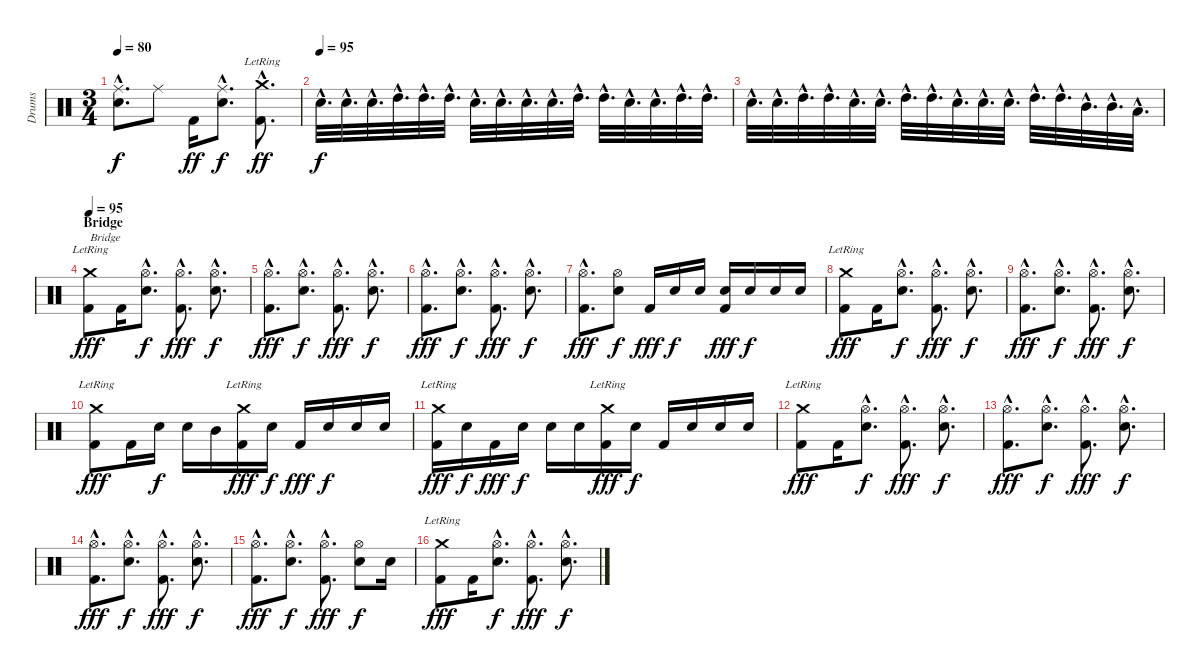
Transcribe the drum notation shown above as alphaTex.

\track ("Drums" "Drums") {instrument percussion}
\staff {score}
\articulation defaults
\ts (3 4)
\tempo 80
\clef neutral
\ks c
("Ride (middle)"{hac} "Snare (hit) 2"{hac}).8{d dy f} "Ride (middle)".8 "Kick (hit) 2".16{dy ff} ("Ride (middle)"{hac} "Snare (hit) 2"{hac}).8{d dy f} ("Crash medium (hit)"{hac lr} "Kick (hit) 2"{hac}).8{d dy ff} |
\tempo (95)
"Snare (hit) 2"{hac}.32{d dy f} "Snare (hit) 2"{hac}.32{d} "Snare (hit) 2"{hac}.32{d} "High Tom (hit)"{hac}.32{d} "High Tom (hit)"{hac}.32{d} "High Tom (hit)"{hac}.32{d} "Snare (hit) 2"{hac}.32{d} "Snare (hit) 2"{hac}.32{d} "Snare (hit) 2"{hac}.32{d} "Snare (hit) 2"{hac}.32{d} "High Tom (hit)"{hac}.32{d} "High Tom (hit)"{hac}.32{d} "Snare (hit) 2"{hac}.32{d} "Snare (hit) 2"{hac}.32{d} "High Tom (hit)"{hac}.32{d} "High Tom (hit)"{hac}.32{d} |
"Snare (hit) 2"{hac}.32{d} "Snare (hit) 2"{hac}.32{d} "High Tom (hit)"{hac}.32{d} "High Tom (hit)"{hac}.32{d} "Snare (hit) 2"{hac}.32{d} "Snare (hit) 2"{hac}.32{d} "High Tom (hit)"{hac}.32{d} "High Tom (hit)"{hac}.32{d} "Snare (hit) 2"{hac}.32{d} "Snare (hit) 2"{hac}.32{d} "Snare (hit) 2"{hac}.32{d} "High Tom (hit)"{hac}.32{d} "High Tom (hit)"{hac}.32{d} "Mid Tom (hit)"{hac}.32{d} "Mid Tom (hit)"{hac}.32{d} "Low Tom (hit)"{hac}.32{d} |
\section ("" "Bridge")
\tempo 95
("Crash medium (hit)"{lr} "Kick (hit) 2").8{txt "Bridge" dy fff} "Kick (hit) 2".16 ("Hi-Hat (open)"{hac} "Snare (hit) 2"{hac}).8{d dy f} ("Hi-Hat (open)"{hac} "Kick (hit) 2"{hac}).8{d dy fff} ("Hi-Hat (open)"{hac} "Snare (hit) 2"{hac}).8{d dy f} |
("Hi-Hat (open)"{hac} "Kick (hit) 2"{hac}).8{d dy fff} ("Hi-Hat (open)"{hac} "Snare (hit) 2"{hac}).8{d dy f} ("Hi-Hat (open)"{hac} "Kick (hit) 2"{hac}).8{d dy fff} ("Hi-Hat (open)"{hac} "Snare (hit) 2"{hac}).8{d dy f} |
("Hi-Hat (open)"{hac} "Kick (hit) 2"{hac}).8{d dy fff} ("Hi-Hat (open)"{hac} "Snare (hit) 2"{hac}).8{d dy f} ("Hi-Hat (open)"{hac} "Kick (hit) 2"{hac}).8{d dy fff} ("Hi-Hat (open)"{hac} "Snare (hit) 2"{hac}).8{d dy f} |
("Hi-Hat (open)"{hac} "Kick (hit) 2"{hac}).8{d dy fff} ("Hi-Hat (open)" "Snare (hit) 2").8{dy f} "Kick (hit) 2".16{dy fff} "Snare (hit) 2".16{dy f} "Snare (hit) 2".16 ("Snare (hit) 2" "Kick (hit) 2").16{dy fff} "Snare (hit) 2".16{dy f} "Snare (hit) 2".16 "Snare (hit) 2".16 |
("Crash medium (hit)"{lr} "Kick (hit) 2").8{dy fff} "Kick (hit) 2".16 ("Hi-Hat (open)"{hac} "Snare (hit) 2"{hac}).8{d dy f} ("Hi-Hat (open)"{hac} "Kick (hit) 2"{hac}).8{d dy fff} ("Hi-Hat (open)"{hac} "Snare (hit) 2"{hac}).8{d dy f} |
("Hi-Hat (open)"{hac} "Kick (hit) 2"{hac}).8{d dy fff} ("Hi-Hat (open)"{hac} "Snare (hit) 2"{hac}).8{d dy f} ("Hi-Hat (open)"{hac} "Kick (hit) 2"{hac}).8{d dy fff} ("Hi-Hat (open)"{hac} "Snare (hit) 2"{hac}).8{d dy f} |
("Crash medium (hit)"{lr} "Kick (hit) 2").8{dy fff} "Kick (hit) 2".16 "Snare (hit) 2".16{dy f} "Snare (hit) 2".16 "Mid Tom (hit)".16 ("Crash medium (hit)"{lr} "Kick (hit) 2").16{dy fff} "Snare (hit) 2".16{dy f} "Kick (hit) 2".16{dy fff} "Snare (hit) 2".16{dy f} "Snare (hit) 2".16 "Snare (hit) 2".16 |
("Crash medium (hit)"{lr} "Kick (hit) 2").16{dy fff} "Snare (hit) 2".16{dy f} "Kick (hit) 2".16{dy fff} "Snare (hit) 2".16{dy f} "Snare (hit) 2".16 "Snare (hit) 2".16 ("Crash medium (hit)"{lr} "Kick (hit) 2").16{dy fff} "Snare (hit) 2".16{dy f} "Kick (hit) 2".16 "Snare (hit) 2".16 "Snare (hit) 2".16 "Snare (hit) 2".16 |
("Crash medium (hit)"{lr} "Kick (hit) 2").8{dy fff} "Kick (hit) 2".16 ("Hi-Hat (open)"{hac} "Snare (hit) 2"{hac}).8{d dy f} ("Hi-Hat (open)"{hac} "Kick (hit) 2"{hac}).8{d dy fff} ("Hi-Hat (open)"{hac} "Snare (hit) 2"{hac}).8{d dy f} |
("Hi-Hat (open)"{hac} "Kick (hit) 2"{hac}).8{d dy fff} ("Hi-Hat (open)"{hac} "Snare (hit) 2"{hac}).8{d dy f} ("Hi-Hat (open)"{hac} "Kick (hit) 2"{hac}).8{d dy fff} ("Hi-Hat (open)"{hac} "Snare (hit) 2"{hac}).8{d dy f} |
("Hi-Hat (open)"{hac} "Kick (hit) 2"{hac}).8{d dy fff} ("Hi-Hat (open)"{hac} "Snare (hit) 2"{hac}).8{d dy f} ("Hi-Hat (open)"{hac} "Kick (hit) 2"{hac}).8{d dy fff} ("Hi-Hat (open)"{hac} "Snare (hit) 2"{hac}).8{d dy f} |
("Hi-Hat (open)"{hac} "Kick (hit) 2"{hac}).8{d dy fff} ("Hi-Hat (open)"{hac} "Snare (hit) 2"{hac}).8{d dy f} ("Hi-Hat (open)"{hac} "Kick (hit) 2"{hac}).8{d dy fff} ("Hi-Hat (open)" "Snare (hit) 2").8{dy f} "Snare (hit) 2".16 |
("Crash medium (hit)"{lr} "Kick (hit) 2").8{dy fff} "Kick (hit) 2".16 ("Hi-Hat (open)"{hac} "Snare (hit) 2"{hac}).8{d dy f} ("Hi-Hat (open)"{hac} "Kick (hit) 2"{hac}).8{d dy fff} ("Hi-Hat (open)"{hac} "Snare (hit) 2"{hac}).8{d dy f}
